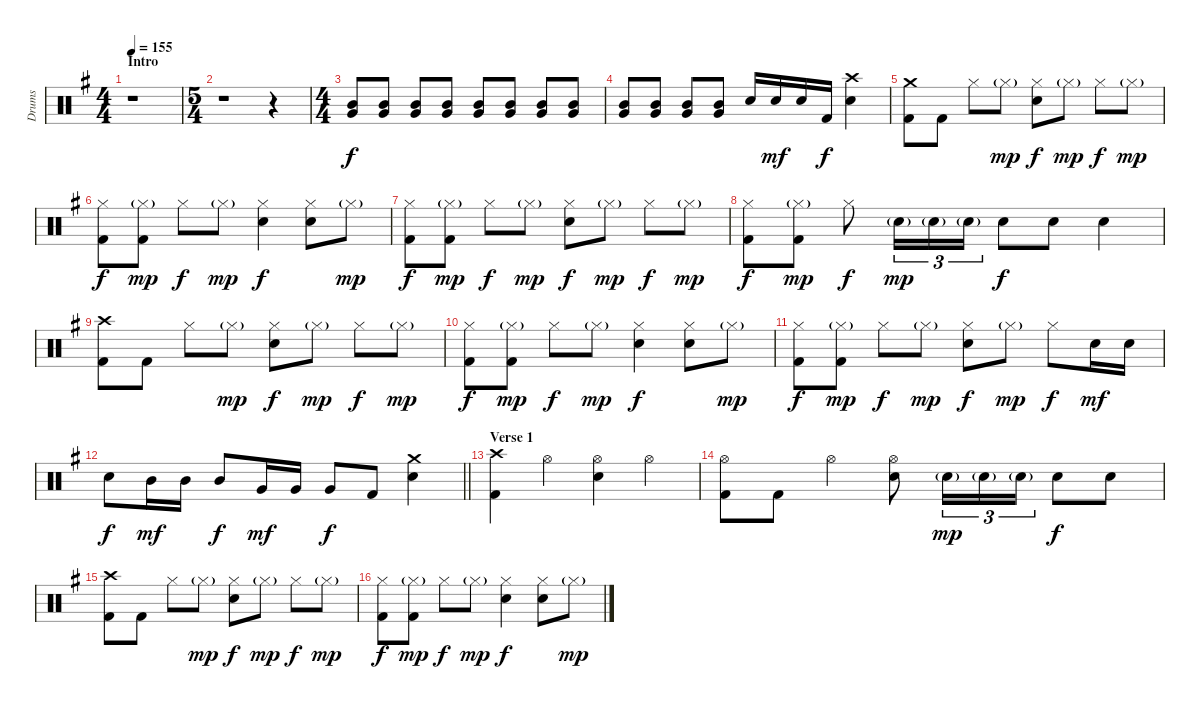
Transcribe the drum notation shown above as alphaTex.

\track ("Drums" "Drums") {instrument percussion}
\staff {score}
\articulation defaults
\ts (4 4)
\section ("" "Intro")
\tempo 155
\clef neutral
\ks eminor
r.1{dy f} |
\ts (5 4)
r.1 r.4 |
\ts (4 4)
("Mid Tom (hit)" "Very Low Tom (hit)").8 ("Mid Tom (hit)" "Very Low Tom (hit)").8 ("Mid Tom (hit)" "Very Low Tom (hit)").8 ("Mid Tom (hit)" "Very Low Tom (hit)").8 ("Mid Tom (hit)" "Very Low Tom (hit)").8 ("Mid Tom (hit)" "Very Low Tom (hit)").8 ("Mid Tom (hit)" "Very Low Tom (hit)").8 ("Mid Tom (hit)" "Very Low Tom (hit)").8 |
("Mid Tom (hit)" "Very Low Tom (hit)").8 ("Mid Tom (hit)" "Very Low Tom (hit)").8 ("Mid Tom (hit)" "Very Low Tom (hit)").8 ("Mid Tom (hit)" "Very Low Tom (hit)").8 "Electric Snare (hit)".16 "Electric Snare (hit)".16{dy mf} "Electric Snare (hit)".16 "Kick (hit) 2".16{dy f} ("Crash high (hit)" "Electric Snare (hit)").4 |
("Crash medium (hit)" "Kick (hit) 2").8 "Kick (hit) 2".8 "Hi-Hat (closed)".8 "Hi-Hat (closed)"{g}.8{dy mp} ("Hi-Hat (closed)" "Electric Snare (hit)").8{dy f} "Hi-Hat (closed)"{g}.8{dy mp} "Hi-Hat (closed)".8{dy f} "Hi-Hat (closed)"{g}.8{dy mp} |
("Hi-Hat (closed)" "Kick (hit) 2").8{dy f} ("Hi-Hat (closed)"{g} "Kick (hit) 2").8{dy mp} "Hi-Hat (closed)".8{dy f} "Hi-Hat (closed)"{g}.8{dy mp} ("Hi-Hat (closed)" "Electric Snare (hit)").4{dy f} ("Hi-Hat (closed)" "Electric Snare (hit)").8 "Hi-Hat (closed)"{g}.8{dy mp} |
("Hi-Hat (closed)" "Kick (hit) 2").8{dy f} ("Hi-Hat (closed)"{g} "Kick (hit) 2").8{dy mp} "Hi-Hat (closed)".8{dy f} "Hi-Hat (closed)"{g}.8{dy mp} ("Hi-Hat (closed)" "Electric Snare (hit)").8{dy f} "Hi-Hat (closed)"{g}.8{dy mp} "Hi-Hat (closed)".8{dy f} "Hi-Hat (closed)"{g}.8{dy mp} |
("Hi-Hat (closed)" "Kick (hit) 2").8{dy f} ("Hi-Hat (closed)"{g} "Kick (hit) 2").8{dy mp} "Hi-Hat (closed)".8{dy f} "Electric Snare (hit)"{g}.16{tu (3 2) dy mp} "Electric Snare (hit)"{g}.16{tu (3 2)} "Electric Snare (hit)"{g}.16{tu (3 2)} "Electric Snare (hit)".8{dy f} "Electric Snare (hit)".8 "Electric Snare (hit)".4 |
("Crash high (hit)" "Kick (hit) 2").8 "Kick (hit) 2".8 "Hi-Hat (closed)".8 "Hi-Hat (closed)"{g}.8{dy mp} ("Hi-Hat (closed)" "Electric Snare (hit)").8{dy f} "Hi-Hat (closed)"{g}.8{dy mp} "Hi-Hat (closed)".8{dy f} "Hi-Hat (closed)"{g}.8{dy mp} |
("Hi-Hat (closed)" "Kick (hit) 2").8{dy f} ("Hi-Hat (closed)"{g} "Kick (hit) 2").8{dy mp} "Hi-Hat (closed)".8{dy f} "Hi-Hat (closed)"{g}.8{dy mp} ("Hi-Hat (closed)" "Electric Snare (hit)").4{dy f} ("Hi-Hat (closed)" "Electric Snare (hit)").8 "Hi-Hat (closed)"{g}.8{dy mp} |
("Hi-Hat (closed)" "Kick (hit) 2").8{dy f} ("Hi-Hat (closed)"{g} "Kick (hit) 2").8{dy mp} "Hi-Hat (closed)".8{dy f} "Hi-Hat (closed)"{g}.8{dy mp} ("Hi-Hat (closed)" "Electric Snare (hit)").8{dy f} "Hi-Hat (closed)"{g}.8{dy mp} "Hi-Hat (closed)".8{dy f} "Electric Snare (hit)".16{dy mf} "Electric Snare (hit)".16 |
\barLineRight lightlight "Electric Snare (hit)".8{dy f} "Mid Tom (hit)".16{dy mf} "Mid Tom (hit)".16 "Mid Tom (hit)".8{dy f} "Very Low Tom (hit)".16{dy mf} "Very Low Tom (hit)".16 "Very Low Tom (hit)".8{dy f} "Kick (hit) 2".8
("Crash medium (hit)" "Electric Snare (hit)").4 |
\section ("" "Verse 1")
("Crash high (hit)" "Kick (hit) 2").4 "Hi-Hat (open)".4 ("Hi-Hat (open)" "Electric Snare (hit)").4 "Hi-Hat (open)".4 |
("Hi-Hat (open)" "Kick (hit) 2").8 "Kick (hit) 2".8 "Hi-Hat (open)".4 ("Hi-Hat (open)" "Electric Snare (hit)").8 "Electric Snare (hit)"{g}.16{tu (3 2) dy mp} "Electric Snare (hit)"{g}.16{tu (3 2)} "Electric Snare (hit)"{g}.16{tu (3 2)} "Electric Snare (hit)".8{dy f} "Electric Snare (hit)".8 |
("Crash high (hit)" "Kick (hit) 2").8 "Kick (hit) 2".8 "Hi-Hat (closed)".8 "Hi-Hat (closed)"{g}.8{dy mp} ("Hi-Hat (closed)" "Electric Snare (hit)").8{dy f} "Hi-Hat (closed)"{g}.8{dy mp} "Hi-Hat (closed)".8{dy f} "Hi-Hat (closed)"{g}.8{dy mp} |
("Hi-Hat (closed)" "Kick (hit) 2").8{dy f} ("Hi-Hat (closed)"{g} "Kick (hit) 2").8{dy mp} "Hi-Hat (closed)".8{dy f} "Hi-Hat (closed)"{g}.8{dy mp} ("Hi-Hat (closed)" "Electric Snare (hit)").4{dy f} ("Hi-Hat (closed)" "Electric Snare (hit)").8 "Hi-Hat (closed)"{g}.8{dy mp}
